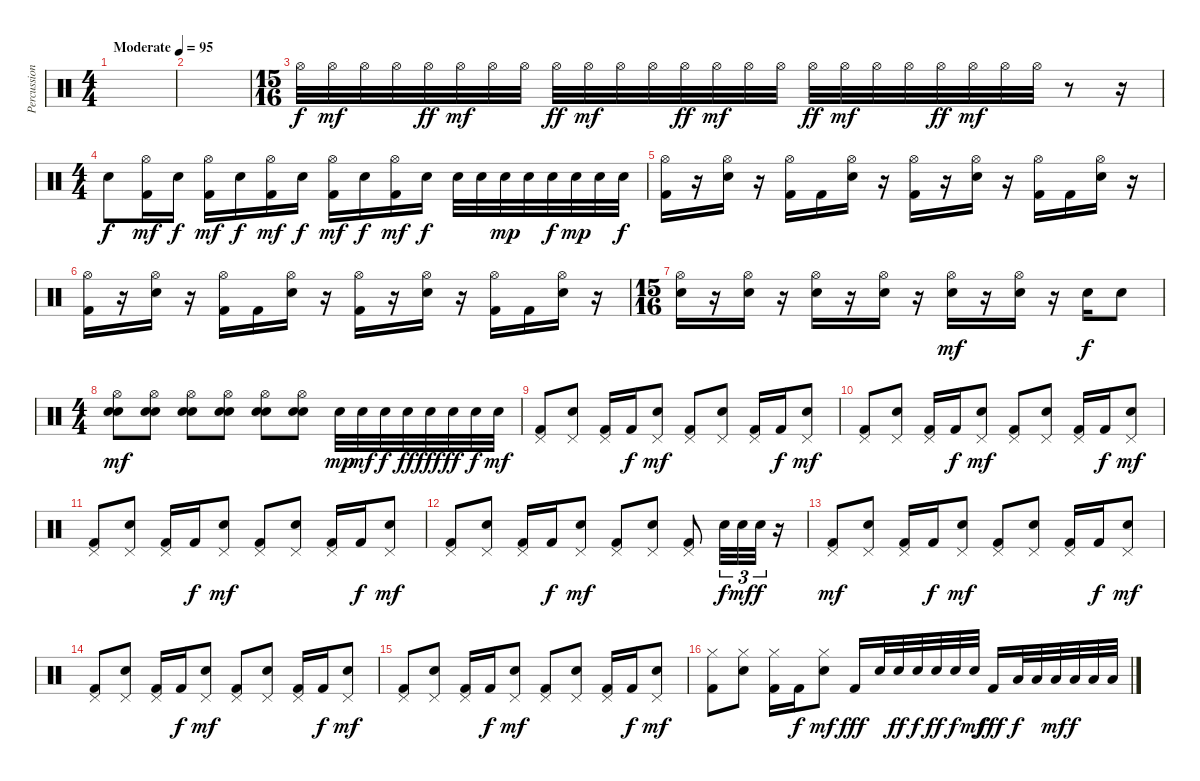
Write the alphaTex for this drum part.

\track ("Percussion" "Percussion") {instrument percussion}
\staff {score}
\articulation defaults
\ts (4 4)
\tempo (95 "Moderate")
\clef neutral
\ks c
|
|
\ts (15 16)
"Hi-Hat (open)".32 "Hi-Hat (open)".32{dy mf} "Hi-Hat (open)".32 "Hi-Hat (open)".32 "Hi-Hat (open)".32{dy ff} "Hi-Hat (open)".32{dy mf} "Hi-Hat (open)".32 "Hi-Hat (open)".32 "Hi-Hat (open)".32{dy ff} "Hi-Hat (open)".32{dy mf} "Hi-Hat (open)".32 "Hi-Hat (open)".32 "Hi-Hat (open)".32{dy ff} "Hi-Hat (open)".32{dy mf} "Hi-Hat (open)".32 "Hi-Hat (open)".32 "Hi-Hat (open)".32{dy ff} "Hi-Hat (open)".32{dy mf} "Hi-Hat (open)".32 "Hi-Hat (open)".32 "Hi-Hat (open)".32{dy ff} "Hi-Hat (open)".32{dy mf} "Hi-Hat (open)".32 "Hi-Hat (open)".32 r.8 r.16 |
\ts (4 4)
"Electric Snare (hit)".8{dy f} ("Hi-Hat (open)" "Kick (hit) 2").16{dy mf} "Electric Snare (hit)".16{dy f} ("Hi-Hat (open)" "Kick (hit) 2").16{dy mf} "Electric Snare (hit)".16{dy f} ("Hi-Hat (open)" "Kick (hit) 2").16{dy mf} "Electric Snare (hit)".16{dy f} ("Hi-Hat (open)" "Kick (hit) 2").16{dy mf} "Electric Snare (hit)".16{dy f} ("Hi-Hat (open)" "Kick (hit) 2").16{dy mf} "Electric Snare (hit)".16{dy f} "Electric Snare (hit)".32 "Electric Snare (hit)".32 "Electric Snare (hit)".32{dy mp} "Electric Snare (hit)".32 "Electric Snare (hit)".32{dy f} "Electric Snare (hit)".32{dy mp} "Electric Snare (hit)".32 "Electric Snare (hit)".32{dy f} |
("Hi-Hat (open)" "Kick (hit) 2").16 r.16 ("Hi-Hat (open)" "Electric Snare (hit)").16 r.16 ("Hi-Hat (open)" "Kick (hit) 2").16 "Kick (hit) 2".16 ("Hi-Hat (open)" "Electric Snare (hit)").16 r.16 ("Hi-Hat (open)" "Kick (hit) 2").16 r.16 ("Hi-Hat (open)" "Electric Snare (hit)").16 r.16 ("Hi-Hat (open)" "Kick (hit) 2").16 "Kick (hit) 2".16 ("Hi-Hat (open)" "Electric Snare (hit)").16 r.16 |
("Hi-Hat (open)" "Kick (hit) 2").16 r.16 ("Hi-Hat (open)" "Electric Snare (hit)").16 r.16 ("Hi-Hat (open)" "Kick (hit) 2").16 "Kick (hit) 2".16 ("Hi-Hat (open)" "Electric Snare (hit)").16 r.16 ("Hi-Hat (open)" "Kick (hit) 2").16 r.16 ("Hi-Hat (open)" "Electric Snare (hit)").16 r.16 ("Hi-Hat (open)" "Kick (hit) 2").16 "Kick (hit) 2".16 ("Hi-Hat (open)" "Electric Snare (hit)").16 r.16 |
\ts (15 16)
("Hi-Hat (open)" "Electric Snare (hit)").16 r.16 ("Hi-Hat (open)" "Electric Snare (hit)").16 r.16 ("Hi-Hat (open)" "Electric Snare (hit)").16 r.16 ("Hi-Hat (open)" "Electric Snare (hit)").16 r.16 ("Hi-Hat (open)" "Electric Snare (hit)").16{dy mf} r.16 ("Hi-Hat (open)" "Electric Snare (hit)").16 r.16 "Electric Snare (hit)".16{dy f} "Electric Snare (hit)".8 |
\ts (4 4)
("Hi-Hat (open)" "Electric Snare (hit)" "Snare (hit) 2").8{dy mf} ("Hi-Hat (open)" "Electric Snare (hit)" "Snare (hit) 2").8 ("Hi-Hat (open)" "Electric Snare (hit)" "Snare (hit) 2").8 ("Hi-Hat (open)" "Electric Snare (hit)" "Snare (hit) 2").8 ("Hi-Hat (open)" "Electric Snare (hit)" "Snare (hit) 2").8 ("Hi-Hat (open)" "Electric Snare (hit)" "Snare (hit) 2").8 "Electric Snare (hit)".32{dy mp} "Electric Snare (hit)".32{dy mf} "Electric Snare (hit)".32{dy f} "Electric Snare (hit)".32{dy ff} "Electric Snare (hit)".32{dy fff} "Electric Snare (hit)".32{dy ff} "Electric Snare (hit)".32{dy f} "Electric Snare (hit)".32{dy mf} |
("Pedal Hi-Hat (hit)" "Kick (hit) 2").8 ("Pedal Hi-Hat (hit)" "Electric Snare (hit)").8 ("Pedal Hi-Hat (hit)" "Kick (hit) 2").16 "Kick (hit) 2".16{dy f} ("Pedal Hi-Hat (hit)" "Electric Snare (hit)").8{dy mf} ("Pedal Hi-Hat (hit)" "Kick (hit) 2").8 ("Pedal Hi-Hat (hit)" "Electric Snare (hit)").8 ("Pedal Hi-Hat (hit)" "Kick (hit) 2").16 "Kick (hit) 2".16{dy f} ("Pedal Hi-Hat (hit)" "Electric Snare (hit)").8{dy mf} |
("Pedal Hi-Hat (hit)" "Kick (hit) 2").8 ("Pedal Hi-Hat (hit)" "Electric Snare (hit)").8 ("Pedal Hi-Hat (hit)" "Kick (hit) 2").16 "Kick (hit) 2".16{dy f} ("Pedal Hi-Hat (hit)" "Electric Snare (hit)").8{dy mf} ("Pedal Hi-Hat (hit)" "Kick (hit) 2").8 ("Pedal Hi-Hat (hit)" "Electric Snare (hit)").8 ("Pedal Hi-Hat (hit)" "Kick (hit) 2").16 "Kick (hit) 2".16{dy f} ("Pedal Hi-Hat (hit)" "Electric Snare (hit)").8{dy mf} |
("Pedal Hi-Hat (hit)" "Kick (hit) 2").8 ("Pedal Hi-Hat (hit)" "Electric Snare (hit)").8 ("Pedal Hi-Hat (hit)" "Kick (hit) 2").16 "Kick (hit) 2".16{dy f} ("Pedal Hi-Hat (hit)" "Electric Snare (hit)").8{dy mf} ("Pedal Hi-Hat (hit)" "Kick (hit) 2").8 ("Pedal Hi-Hat (hit)" "Electric Snare (hit)").8 ("Pedal Hi-Hat (hit)" "Kick (hit) 2").16 "Kick (hit) 2".16{dy f} ("Pedal Hi-Hat (hit)" "Electric Snare (hit)").8{dy mf} |
("Pedal Hi-Hat (hit)" "Kick (hit) 2").8 ("Pedal Hi-Hat (hit)" "Electric Snare (hit)").8 ("Pedal Hi-Hat (hit)" "Kick (hit) 2").16 "Kick (hit) 2".16{dy f} ("Pedal Hi-Hat (hit)" "Electric Snare (hit)").8{dy mf} ("Pedal Hi-Hat (hit)" "Kick (hit) 2").8 ("Pedal Hi-Hat (hit)" "Electric Snare (hit)").8 ("Pedal Hi-Hat (hit)" "Kick (hit) 2").8 "Electric Snare (hit)".32{tu (3 2) dy f} "Electric Snare (hit)".32{tu (3 2) dy mf} "Electric Snare (hit)".32{tu (3 2) dy f} r.16 |
("Pedal Hi-Hat (hit)" "Kick (hit) 2").8{dy mf} ("Pedal Hi-Hat (hit)" "Electric Snare (hit)").8 ("Pedal Hi-Hat (hit)" "Kick (hit) 2").16 "Kick (hit) 2".16{dy f} ("Pedal Hi-Hat (hit)" "Electric Snare (hit)").8{dy mf} ("Pedal Hi-Hat (hit)" "Kick (hit) 2").8 ("Pedal Hi-Hat (hit)" "Electric Snare (hit)").8 ("Pedal Hi-Hat (hit)" "Kick (hit) 2").16 "Kick (hit) 2".16{dy f} ("Pedal Hi-Hat (hit)" "Electric Snare (hit)").8{dy mf} |
("Pedal Hi-Hat (hit)" "Kick (hit) 2").8 ("Pedal Hi-Hat (hit)" "Electric Snare (hit)").8 ("Pedal Hi-Hat (hit)" "Kick (hit) 2").16 "Kick (hit) 2".16{dy f} ("Pedal Hi-Hat (hit)" "Electric Snare (hit)").8{dy mf} ("Pedal Hi-Hat (hit)" "Kick (hit) 2").8 ("Pedal Hi-Hat (hit)" "Electric Snare (hit)").8 ("Pedal Hi-Hat (hit)" "Kick (hit) 2").16 "Kick (hit) 2".16{dy f} ("Pedal Hi-Hat (hit)" "Electric Snare (hit)").8{dy mf} |
("Pedal Hi-Hat (hit)" "Kick (hit) 2").8 ("Pedal Hi-Hat (hit)" "Electric Snare (hit)").8 ("Pedal Hi-Hat (hit)" "Kick (hit) 2").16 "Kick (hit) 2".16{dy f} ("Pedal Hi-Hat (hit)" "Electric Snare (hit)").8{dy mf} ("Pedal Hi-Hat (hit)" "Kick (hit) 2").8 ("Pedal Hi-Hat (hit)" "Electric Snare (hit)").8 ("Pedal Hi-Hat (hit)" "Kick (hit) 2").16 "Kick (hit) 2".16{dy f} ("Pedal Hi-Hat (hit)" "Electric Snare (hit)").8{dy mf} |
("Hi-Hat (closed)" "Kick (hit) 2").8 ("Hi-Hat (closed)" "Electric Snare (hit)").8 ("Hi-Hat (closed)" "Kick (hit) 2").16 "Kick (hit) 2".16{dy f} ("Hi-Hat (closed)" "Electric Snare (hit)").8{dy mf} "Kick (hit) 2".16{dy fff} "Electric Snare (hit)".32 "Electric Snare (hit)".32{dy ff} "Electric Snare (hit)".32{dy f} "Electric Snare (hit)".32{dy ff} "Electric Snare (hit)".32{dy f} "Electric Snare (hit)".32{dy mf} "Kick (hit) 2".16{dy fff} "Low Tom (hit)".32{dy f} "Low Tom (hit)".32 "Low Tom (hit)".32{dy mf} "Low Floor Tom (hit)".32{dy f} "Low Floor Tom (hit)".32 "Low Floor Tom (hit)".32
